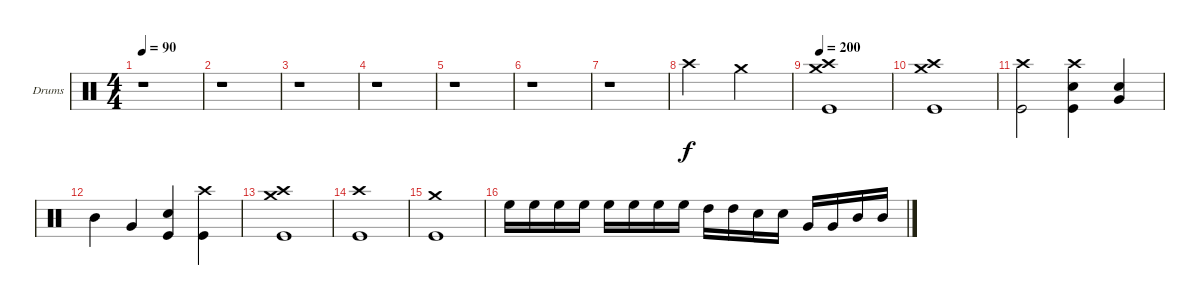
\bracketExtendMode groupsimilarinstruments
\firstSystemTrackNameOrientation horizontal
\otherSystemsTrackNameOrientation horizontal
\track ("Drumkit" "Drums") {instrument percussion}
\staff {score}
\articulation defaults
\ts (4 4)
\beaming (8 2 2 2 2)
\tempo 90
\clef neutral
\ks c
r.1{dy f} |
r.1 |
r.1 |
r.1 |
r.1 |
r.1 |
r.1 |
"Crash high (hit)".2 "Crash medium (hit)".2 |
\tempo 200
("Crash medium (hit)" "Crash high (hit)" "Kick (hit)").1 |
("Crash medium (hit)" "Crash high (hit)" "Kick (hit)").1 |
("Crash high (hit)" "Kick (hit)").2 ("Crash high (hit)" "Kick (hit)" "Snare (hit) 2").4 ("Very Low Tom (hit)" "Snare (hit) 2").4 |
"Mid Tom (hit)".4 "Very Low Tom (hit)".4 ("Kick (hit)" "Snare (hit) 2").4 ("Kick (hit)" "Crash high (hit)").4 |
("Crash high (hit)" "Crash medium (hit)" "Kick (hit)").1 |
("Crash high (hit)" "Kick (hit)").1 |
("Crash medium (hit)" "Kick (hit)").1 |
"High Floor Tom (hit)".16 "High Floor Tom (hit)".16 "High Floor Tom (hit)".16 "High Floor Tom (hit)".16 "High Floor Tom (hit)".16 "High Floor Tom (hit)".16 "High Floor Tom (hit)".16 "High Floor Tom (hit)".16 "High Tom (hit)".16 "High Tom (hit)".16 "Snare (hit) 2".16 "Snare (hit) 2".16 "Very Low Tom (hit)".16 "Very Low Tom (hit)".16 "Mid Tom (hit)".16 "Mid Tom (hit)".16
